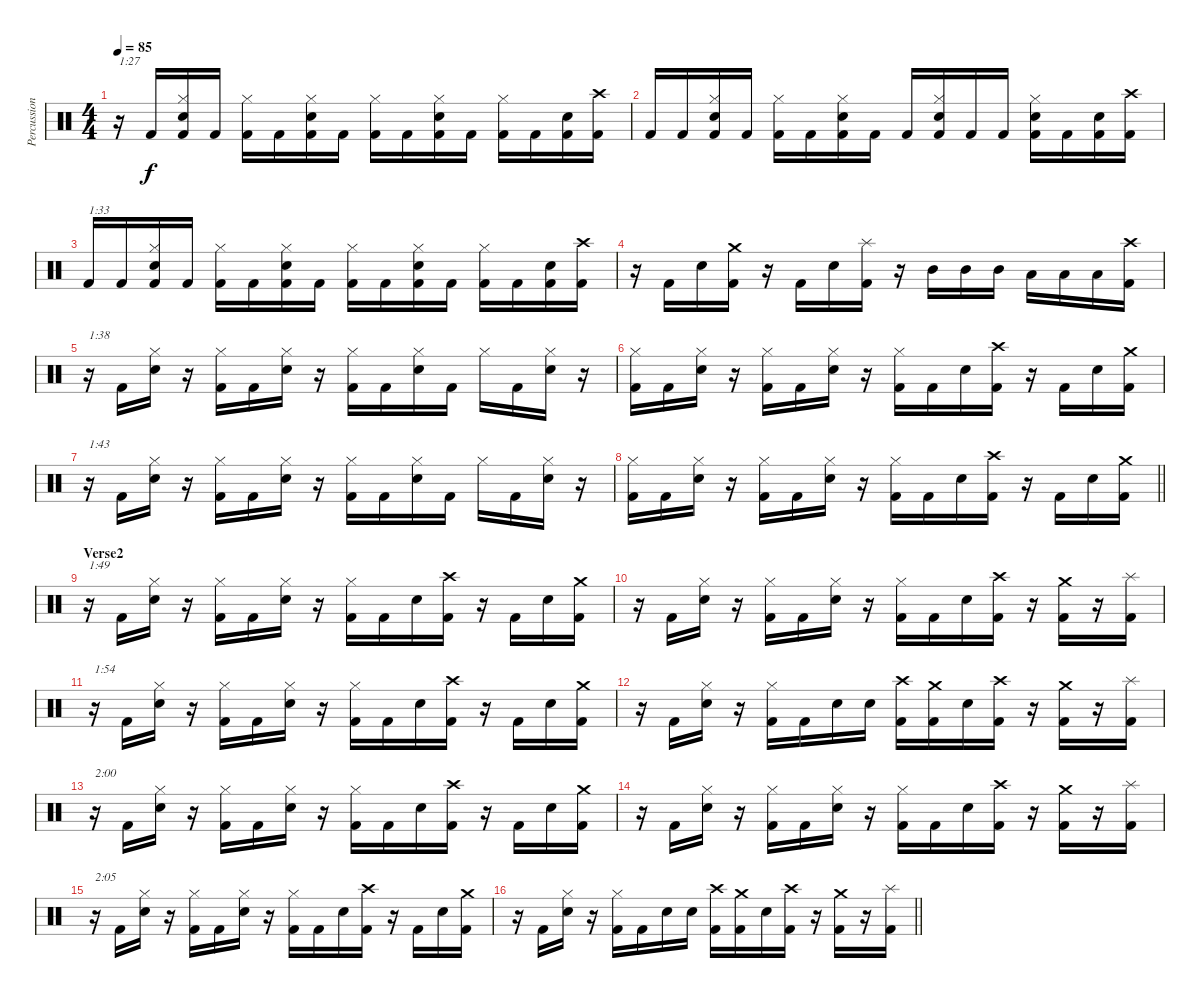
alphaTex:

\track ("Percussion" "Percussion") {instrument percussion}
\staff {score}
\articulation defaults
\ts (4 4)
\tempo 85
\clef neutral
\ks c
r.16{txt "1:27" dy f} "Kick (hit) 2".16 ("Hi-Hat (closed)" "Snare (hit) 2" "Kick (hit) 2").16 "Kick (hit) 2".16 ("Hi-Hat (closed)" "Kick (hit) 2").16 "Kick (hit) 2".16 ("Hi-Hat (closed)" "Snare (hit) 2" "Kick (hit) 2").16 "Kick (hit) 2".16 ("Hi-Hat (closed)" "Kick (hit) 2").16 "Kick (hit) 2".16 ("Hi-Hat (closed)" "Snare (hit) 2" "Kick (hit) 2").16 "Kick (hit) 2".16 ("Hi-Hat (closed)" "Kick (hit) 2").16 "Kick (hit) 2".16 ("Snare (hit) 2" "Kick (hit) 2").16 ("Crash high (hit)" "Kick (hit) 2").16 |
"Kick (hit) 2".16 "Kick (hit) 2".16 ("Hi-Hat (closed)" "Snare (hit) 2" "Kick (hit) 2").16 "Kick (hit) 2".16 ("Hi-Hat (closed)" "Kick (hit) 2").16 "Kick (hit) 2".16 ("Hi-Hat (closed)" "Snare (hit) 2" "Kick (hit) 2").16 "Kick (hit) 2".16 "Kick (hit) 2".16 ("Hi-Hat (closed)" "Snare (hit) 2" "Kick (hit) 2").16 "Kick (hit) 2".16 "Kick (hit) 2".16 ("Hi-Hat (closed)" "Snare (hit) 2" "Kick (hit) 2").16 "Kick (hit) 2".16 ("Snare (hit) 2" "Kick (hit) 2").16 ("Crash high (hit)" "Kick (hit) 2").16 |
"Kick (hit) 2".16{txt "1:33"} "Kick (hit) 2".16 ("Hi-Hat (closed)" "Snare (hit) 2" "Kick (hit) 2").16 "Kick (hit) 2".16 ("Hi-Hat (closed)" "Kick (hit) 2").16 "Kick (hit) 2".16 ("Hi-Hat (closed)" "Snare (hit) 2" "Kick (hit) 2").16 "Kick (hit) 2".16 ("Hi-Hat (closed)" "Kick (hit) 2").16 "Kick (hit) 2".16 ("Hi-Hat (closed)" "Snare (hit) 2" "Kick (hit) 2").16 "Kick (hit) 2".16 ("Hi-Hat (closed)" "Kick (hit) 2").16 "Kick (hit) 2".16 ("Snare (hit) 2" "Kick (hit) 2").16 ("Crash high (hit)" "Kick (hit) 2").16 |
r.16 "Kick (hit) 2".16 "Snare (hit) 2".16 ("Crash medium (hit)" "Kick (hit) 2").16 r.16 "Kick (hit) 2".16 "Snare (hit) 2".16 ("Splash (hit)" "Kick (hit) 2").16 r.16 "Mid Tom (hit)".16 "Mid Tom (hit)".16 "Mid Tom (hit)".16 "Low Tom (hit)".16 "Low Tom (hit)".16 "Low Tom (hit)".16 ("Crash high (hit)" "Kick (hit) 2").16 |
r.16{txt "1:38"} "Kick (hit) 2".16 ("Hi-Hat (closed)" "Snare (hit) 2").16 r.16 ("Hi-Hat (closed)" "Kick (hit) 2").16 "Kick (hit) 2".16 ("Hi-Hat (closed)" "Snare (hit) 2").16 r.16 ("Hi-Hat (closed)" "Kick (hit) 2").16 "Kick (hit) 2".16 ("Hi-Hat (closed)" "Snare (hit) 2").16 "Kick (hit) 2".16 "Hi-Hat (closed)".16 "Kick (hit) 2".16 ("Hi-Hat (closed)" "Snare (hit) 2").16 r.16 |
("Hi-Hat (closed)" "Kick (hit) 2").16 "Kick (hit) 2".16 ("Hi-Hat (closed)" "Snare (hit) 2").16 r.16 ("Hi-Hat (closed)" "Kick (hit) 2").16 "Kick (hit) 2".16 ("Hi-Hat (closed)" "Snare (hit) 2").16 r.16 ("Hi-Hat (closed)" "Kick (hit) 2").16 "Kick (hit) 2".16 "Snare (hit) 2".16 ("Crash high (hit)" "Kick (hit) 2").16 r.16 "Kick (hit) 2".16 "Snare (hit) 2".16 ("Crash medium (hit)" "Kick (hit) 2").16 |
r.16{txt "1:43"} "Kick (hit) 2".16 ("Hi-Hat (closed)" "Snare (hit) 2").16 r.16 ("Hi-Hat (closed)" "Kick (hit) 2").16 "Kick (hit) 2".16 ("Hi-Hat (closed)" "Snare (hit) 2").16 r.16 ("Hi-Hat (closed)" "Kick (hit) 2").16 "Kick (hit) 2".16 ("Hi-Hat (closed)" "Snare (hit) 2").16 "Kick (hit) 2".16 "Hi-Hat (closed)".16 "Kick (hit) 2".16 ("Hi-Hat (closed)" "Snare (hit) 2").16 r.16 |
\barLineRight lightlight
("Hi-Hat (closed)" "Kick (hit) 2").16 "Kick (hit) 2".16 ("Hi-Hat (closed)" "Snare (hit) 2").16 r.16 ("Hi-Hat (closed)" "Kick (hit) 2").16 "Kick (hit) 2".16 ("Hi-Hat (closed)" "Snare (hit) 2").16 r.16 ("Hi-Hat (closed)" "Kick (hit) 2").16 "Kick (hit) 2".16 "Snare (hit) 2".16 ("Crash high (hit)" "Kick (hit) 2").16 r.16 "Kick (hit) 2".16 "Snare (hit) 2".16 ("Crash medium (hit)" "Kick (hit) 2").16 |
\section ("" "Verse2")
r.16{txt "1:49"} "Kick (hit) 2".16 ("Hi-Hat (closed)" "Snare (hit) 2").16 r.16 ("Hi-Hat (closed)" "Kick (hit) 2").16 "Kick (hit) 2".16 ("Hi-Hat (closed)" "Snare (hit) 2").16 r.16 ("Hi-Hat (closed)" "Kick (hit) 2").16 "Kick (hit) 2".16 "Snare (hit) 2".16 ("Crash high (hit)" "Kick (hit) 2").16 r.16 "Kick (hit) 2".16 "Snare (hit) 2".16 ("Crash medium (hit)" "Kick (hit) 2").16 |
r.16 "Kick (hit) 2".16 ("Hi-Hat (closed)" "Snare (hit) 2").16 r.16 ("Hi-Hat (closed)" "Kick (hit) 2").16 "Kick (hit) 2".16 ("Hi-Hat (closed)" "Snare (hit) 2").16 r.16 ("Hi-Hat (closed)" "Kick (hit) 2").16 "Kick (hit) 2".16 "Snare (hit) 2".16 ("Crash high (hit)" "Kick (hit) 2").16 r.16 ("Crash medium (hit)" "Kick (hit) 2").16 r.16 ("Splash (hit)" "Kick (hit) 2").16 |
r.16{txt "1:54"} "Kick (hit) 2".16 ("Hi-Hat (closed)" "Snare (hit) 2").16 r.16 ("Hi-Hat (closed)" "Kick (hit) 2").16 "Kick (hit) 2".16 ("Hi-Hat (closed)" "Snare (hit) 2").16 r.16 ("Hi-Hat (closed)" "Kick (hit) 2").16 "Kick (hit) 2".16 "Snare (hit) 2".16 ("Crash high (hit)" "Kick (hit) 2").16 r.16 "Kick (hit) 2".16 "Snare (hit) 2".16 ("Crash medium (hit)" "Kick (hit) 2").16 |
r.16 "Kick (hit) 2".16 ("Hi-Hat (closed)" "Snare (hit) 2").16 r.16 ("Hi-Hat (closed)" "Kick (hit) 2").16 "Kick (hit) 2".16 "Snare (hit) 2".16 "Snare (hit) 2".16 ("Crash high (hit)" "Kick (hit) 2").16 ("Crash medium (hit)" "Kick (hit) 2").16 "Snare (hit) 2".16 ("Crash high (hit)" "Kick (hit) 2").16 r.16 ("Crash medium (hit)" "Kick (hit) 2").16 r.16 ("Splash (hit)" "Kick (hit) 2").16 |
r.16{txt "2:00"} "Kick (hit) 2".16 ("Hi-Hat (closed)" "Snare (hit) 2").16 r.16 ("Hi-Hat (closed)" "Kick (hit) 2").16 "Kick (hit) 2".16 ("Hi-Hat (closed)" "Snare (hit) 2").16 r.16 ("Hi-Hat (closed)" "Kick (hit) 2").16 "Kick (hit) 2".16 "Snare (hit) 2".16 ("Crash high (hit)" "Kick (hit) 2").16 r.16 "Kick (hit) 2".16 "Snare (hit) 2".16 ("Crash medium (hit)" "Kick (hit) 2").16 |
r.16 "Kick (hit) 2".16 ("Hi-Hat (closed)" "Snare (hit) 2").16 r.16 ("Hi-Hat (closed)" "Kick (hit) 2").16 "Kick (hit) 2".16 ("Hi-Hat (closed)" "Snare (hit) 2").16 r.16 ("Hi-Hat (closed)" "Kick (hit) 2").16 "Kick (hit) 2".16 "Snare (hit) 2".16 ("Crash high (hit)" "Kick (hit) 2").16 r.16 ("Crash medium (hit)" "Kick (hit) 2").16 r.16 ("Splash (hit)" "Kick (hit) 2").16 |
r.16{txt "2:05"} "Kick (hit) 2".16 ("Hi-Hat (closed)" "Snare (hit) 2").16 r.16 ("Hi-Hat (closed)" "Kick (hit) 2").16 "Kick (hit) 2".16 ("Hi-Hat (closed)" "Snare (hit) 2").16 r.16 ("Hi-Hat (closed)" "Kick (hit) 2").16 "Kick (hit) 2".16 "Snare (hit) 2".16 ("Crash high (hit)" "Kick (hit) 2").16 r.16 "Kick (hit) 2".16 "Snare (hit) 2".16 ("Crash medium (hit)" "Kick (hit) 2").16 |
\barLineRight lightlight
r.16 "Kick (hit) 2".16 ("Hi-Hat (closed)" "Snare (hit) 2").16 r.16 ("Hi-Hat (closed)" "Kick (hit) 2").16 "Kick (hit) 2".16 "Snare (hit) 2".16 "Snare (hit) 2".16 ("Crash high (hit)" "Kick (hit) 2").16 ("Crash medium (hit)" "Kick (hit) 2").16 "Snare (hit) 2".16 ("Crash high (hit)" "Kick (hit) 2").16 r.16 ("Crash medium (hit)" "Kick (hit) 2").16 r.16 ("Splash (hit)" "Kick (hit) 2").16
